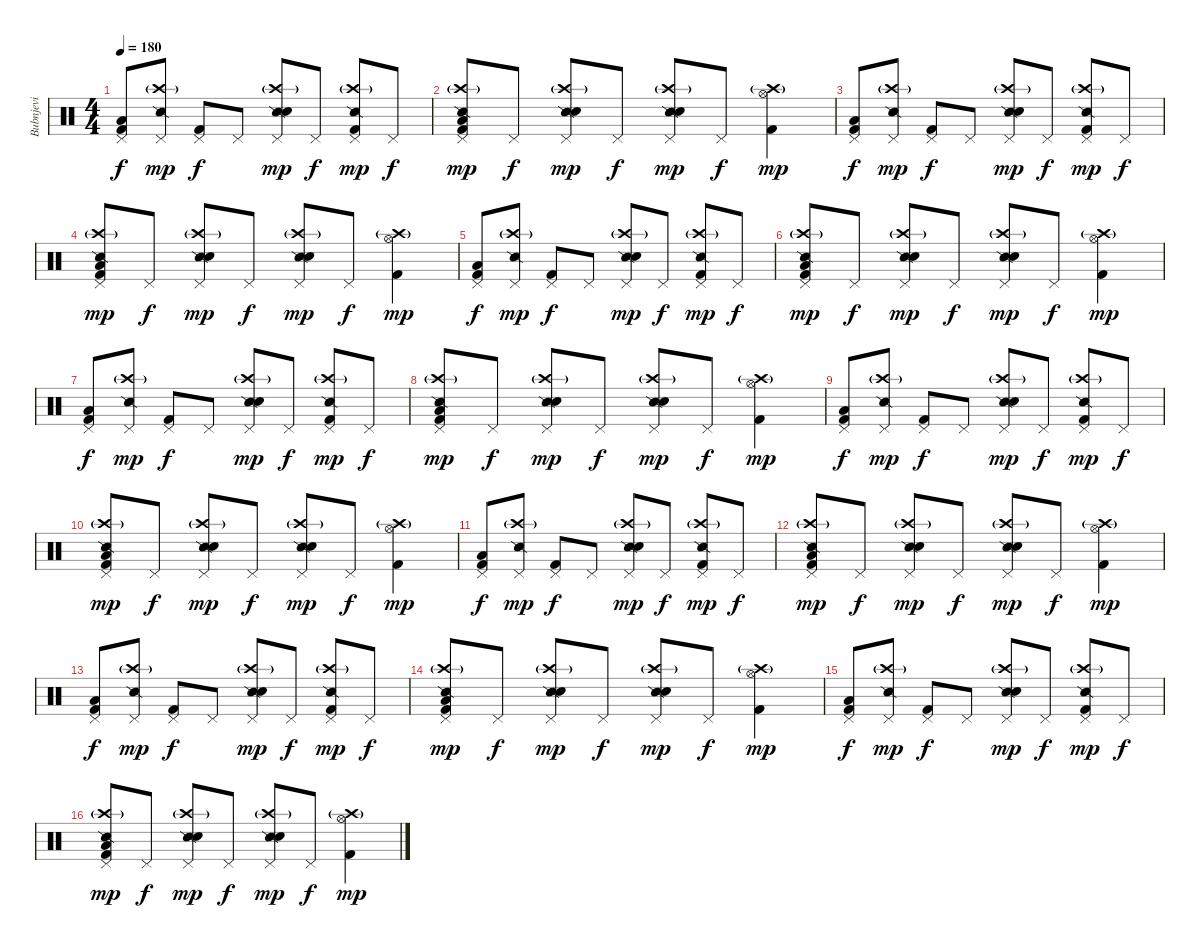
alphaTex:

\track ("Bubnjevi" "Bubnjevi") {instrument percussion}
\staff {score}
\articulation defaults
\ts (4 4)
\tempo 180
\clef neutral
\ks c
("Pedal Hi-Hat (hit)" "Low Tom (hit)" "Kick (hit) 2").8{dy f} ("Crash high (hit)"{g} "Snare (side stick) 2" "Pedal Hi-Hat (hit)").8{dy mp} ("Pedal Hi-Hat (hit)" "Kick (hit) 2").8{dy f} "Pedal Hi-Hat (hit)".8 ("Crash high (hit)"{g} "Snare (side stick) 2" "Pedal Hi-Hat (hit)" "Electric Snare (hit)").8{dy mp} "Pedal Hi-Hat (hit)".8{dy f} ("Crash high (hit)"{g} "Snare (side stick) 2" "Pedal Hi-Hat (hit)" "Kick (hit) 2").8{dy mp} "Pedal Hi-Hat (hit)".8{dy f} |
("Crash high (hit)"{g} "Snare (side stick) 2" "Pedal Hi-Hat (hit)" "Low Tom (hit)" "Kick (hit) 2").8{dy mp} "Pedal Hi-Hat (hit)".8{dy f} ("Crash high (hit)"{g} "Snare (side stick) 2" "Pedal Hi-Hat (hit)" "Hand Clap (hit)").8{dy mp} "Pedal Hi-Hat (hit)".8{dy f} ("Crash high (hit)"{g} "Snare (side stick) 2" "Pedal Hi-Hat (hit)" "Electric Snare (hit)").8{dy mp} "Pedal Hi-Hat (hit)".8{dy f} ("Crash high (hit)"{g} "Hi-Hat (open)" "Kick (hit) 2").4{dy mp} |
("Pedal Hi-Hat (hit)" "Low Tom (hit)" "Kick (hit) 2").8{dy f} ("Crash high (hit)"{g} "Snare (side stick) 2" "Pedal Hi-Hat (hit)").8{dy mp} ("Pedal Hi-Hat (hit)" "Kick (hit) 2").8{dy f} "Pedal Hi-Hat (hit)".8 ("Crash high (hit)"{g} "Snare (side stick) 2" "Pedal Hi-Hat (hit)" "Electric Snare (hit)").8{dy mp} "Pedal Hi-Hat (hit)".8{dy f} ("Crash high (hit)"{g} "Snare (side stick) 2" "Pedal Hi-Hat (hit)" "Kick (hit) 2").8{dy mp} "Pedal Hi-Hat (hit)".8{dy f} |
("Crash high (hit)"{g} "Snare (side stick) 2" "Pedal Hi-Hat (hit)" "Low Tom (hit)" "Kick (hit) 2").8{dy mp} "Pedal Hi-Hat (hit)".8{dy f} ("Crash high (hit)"{g} "Snare (side stick) 2" "Pedal Hi-Hat (hit)" "Hand Clap (hit)").8{dy mp} "Pedal Hi-Hat (hit)".8{dy f} ("Crash high (hit)"{g} "Snare (side stick) 2" "Pedal Hi-Hat (hit)" "Electric Snare (hit)").8{dy mp} "Pedal Hi-Hat (hit)".8{dy f} ("Crash high (hit)"{g} "Hi-Hat (open)" "Kick (hit) 2").4{dy mp} |
("Pedal Hi-Hat (hit)" "Low Tom (hit)" "Kick (hit) 2").8{dy f} ("Crash high (hit)"{g} "Snare (side stick) 2" "Pedal Hi-Hat (hit)").8{dy mp} ("Pedal Hi-Hat (hit)" "Kick (hit) 2").8{dy f} "Pedal Hi-Hat (hit)".8 ("Crash high (hit)"{g} "Snare (side stick) 2" "Pedal Hi-Hat (hit)" "Electric Snare (hit)").8{dy mp} "Pedal Hi-Hat (hit)".8{dy f} ("Crash high (hit)"{g} "Snare (side stick) 2" "Pedal Hi-Hat (hit)" "Kick (hit) 2").8{dy mp} "Pedal Hi-Hat (hit)".8{dy f} |
("Crash high (hit)"{g} "Snare (side stick) 2" "Pedal Hi-Hat (hit)" "Low Tom (hit)" "Kick (hit) 2").8{dy mp} "Pedal Hi-Hat (hit)".8{dy f} ("Crash high (hit)"{g} "Snare (side stick) 2" "Pedal Hi-Hat (hit)" "Hand Clap (hit)").8{dy mp} "Pedal Hi-Hat (hit)".8{dy f} ("Crash high (hit)"{g} "Snare (side stick) 2" "Pedal Hi-Hat (hit)" "Electric Snare (hit)").8{dy mp} "Pedal Hi-Hat (hit)".8{dy f} ("Crash high (hit)"{g} "Hi-Hat (open)" "Kick (hit) 2").4{dy mp} |
("Pedal Hi-Hat (hit)" "Low Tom (hit)" "Kick (hit) 2").8{dy f} ("Crash high (hit)"{g} "Snare (side stick) 2" "Pedal Hi-Hat (hit)").8{dy mp} ("Pedal Hi-Hat (hit)" "Kick (hit) 2").8{dy f} "Pedal Hi-Hat (hit)".8 ("Crash high (hit)"{g} "Snare (side stick) 2" "Pedal Hi-Hat (hit)" "Electric Snare (hit)").8{dy mp} "Pedal Hi-Hat (hit)".8{dy f} ("Crash high (hit)"{g} "Snare (side stick) 2" "Pedal Hi-Hat (hit)" "Kick (hit) 2").8{dy mp} "Pedal Hi-Hat (hit)".8{dy f} |
("Crash high (hit)"{g} "Snare (side stick) 2" "Pedal Hi-Hat (hit)" "Low Tom (hit)" "Kick (hit) 2").8{dy mp} "Pedal Hi-Hat (hit)".8{dy f} ("Crash high (hit)"{g} "Snare (side stick) 2" "Pedal Hi-Hat (hit)" "Hand Clap (hit)").8{dy mp} "Pedal Hi-Hat (hit)".8{dy f} ("Crash high (hit)"{g} "Snare (side stick) 2" "Pedal Hi-Hat (hit)" "Electric Snare (hit)").8{dy mp} "Pedal Hi-Hat (hit)".8{dy f} ("Crash high (hit)"{g} "Hi-Hat (open)" "Kick (hit) 2").4{dy mp} |
("Pedal Hi-Hat (hit)" "Low Tom (hit)" "Kick (hit) 2").8{dy f} ("Crash high (hit)"{g} "Snare (side stick) 2" "Pedal Hi-Hat (hit)").8{dy mp} ("Pedal Hi-Hat (hit)" "Kick (hit) 2").8{dy f} "Pedal Hi-Hat (hit)".8 ("Crash high (hit)"{g} "Snare (side stick) 2" "Pedal Hi-Hat (hit)" "Electric Snare (hit)").8{dy mp} "Pedal Hi-Hat (hit)".8{dy f} ("Crash high (hit)"{g} "Snare (side stick) 2" "Pedal Hi-Hat (hit)" "Kick (hit) 2").8{dy mp} "Pedal Hi-Hat (hit)".8{dy f} |
("Crash high (hit)"{g} "Snare (side stick) 2" "Pedal Hi-Hat (hit)" "Low Tom (hit)" "Kick (hit) 2").8{dy mp} "Pedal Hi-Hat (hit)".8{dy f} ("Crash high (hit)"{g} "Snare (side stick) 2" "Pedal Hi-Hat (hit)" "Hand Clap (hit)").8{dy mp} "Pedal Hi-Hat (hit)".8{dy f} ("Crash high (hit)"{g} "Snare (side stick) 2" "Pedal Hi-Hat (hit)" "Electric Snare (hit)").8{dy mp} "Pedal Hi-Hat (hit)".8{dy f} ("Crash high (hit)"{g} "Hi-Hat (open)" "Kick (hit) 2").4{dy mp} |
("Pedal Hi-Hat (hit)" "Low Tom (hit)" "Kick (hit) 2").8{dy f} ("Crash high (hit)"{g} "Snare (side stick) 2" "Pedal Hi-Hat (hit)").8{dy mp} ("Pedal Hi-Hat (hit)" "Kick (hit) 2").8{dy f} "Pedal Hi-Hat (hit)".8 ("Crash high (hit)"{g} "Snare (side stick) 2" "Pedal Hi-Hat (hit)" "Electric Snare (hit)").8{dy mp} "Pedal Hi-Hat (hit)".8{dy f} ("Crash high (hit)"{g} "Snare (side stick) 2" "Pedal Hi-Hat (hit)" "Kick (hit) 2").8{dy mp} "Pedal Hi-Hat (hit)".8{dy f} |
("Crash high (hit)"{g} "Snare (side stick) 2" "Pedal Hi-Hat (hit)" "Low Tom (hit)" "Kick (hit) 2").8{dy mp} "Pedal Hi-Hat (hit)".8{dy f} ("Crash high (hit)"{g} "Snare (side stick) 2" "Pedal Hi-Hat (hit)" "Hand Clap (hit)").8{dy mp} "Pedal Hi-Hat (hit)".8{dy f} ("Crash high (hit)"{g} "Snare (side stick) 2" "Pedal Hi-Hat (hit)" "Electric Snare (hit)").8{dy mp} "Pedal Hi-Hat (hit)".8{dy f} ("Crash high (hit)"{g} "Hi-Hat (open)" "Kick (hit) 2").4{dy mp} |
("Pedal Hi-Hat (hit)" "Low Tom (hit)" "Kick (hit) 2").8{dy f} ("Crash high (hit)"{g} "Snare (side stick) 2" "Pedal Hi-Hat (hit)").8{dy mp} ("Pedal Hi-Hat (hit)" "Kick (hit) 2").8{dy f} "Pedal Hi-Hat (hit)".8 ("Crash high (hit)"{g} "Snare (side stick) 2" "Pedal Hi-Hat (hit)" "Electric Snare (hit)").8{dy mp} "Pedal Hi-Hat (hit)".8{dy f} ("Crash high (hit)"{g} "Snare (side stick) 2" "Pedal Hi-Hat (hit)" "Kick (hit) 2").8{dy mp} "Pedal Hi-Hat (hit)".8{dy f} |
("Crash high (hit)"{g} "Snare (side stick) 2" "Pedal Hi-Hat (hit)" "Low Tom (hit)" "Kick (hit) 2").8{dy mp} "Pedal Hi-Hat (hit)".8{dy f} ("Crash high (hit)"{g} "Snare (side stick) 2" "Pedal Hi-Hat (hit)" "Hand Clap (hit)").8{dy mp} "Pedal Hi-Hat (hit)".8{dy f} ("Crash high (hit)"{g} "Snare (side stick) 2" "Pedal Hi-Hat (hit)" "Electric Snare (hit)").8{dy mp} "Pedal Hi-Hat (hit)".8{dy f} ("Crash high (hit)"{g} "Hi-Hat (open)" "Kick (hit) 2").4{dy mp} |
("Pedal Hi-Hat (hit)" "Low Tom (hit)" "Kick (hit) 2").8{dy f} ("Crash high (hit)"{g} "Snare (side stick) 2" "Pedal Hi-Hat (hit)").8{dy mp} ("Pedal Hi-Hat (hit)" "Kick (hit) 2").8{dy f} "Pedal Hi-Hat (hit)".8 ("Crash high (hit)"{g} "Snare (side stick) 2" "Pedal Hi-Hat (hit)" "Electric Snare (hit)").8{dy mp} "Pedal Hi-Hat (hit)".8{dy f} ("Crash high (hit)"{g} "Snare (side stick) 2" "Pedal Hi-Hat (hit)" "Kick (hit) 2").8{dy mp} "Pedal Hi-Hat (hit)".8{dy f} |
("Crash high (hit)"{g} "Snare (side stick) 2" "Pedal Hi-Hat (hit)" "Low Tom (hit)" "Kick (hit) 2").8{dy mp} "Pedal Hi-Hat (hit)".8{dy f} ("Crash high (hit)"{g} "Snare (side stick) 2" "Pedal Hi-Hat (hit)" "Hand Clap (hit)").8{dy mp} "Pedal Hi-Hat (hit)".8{dy f} ("Crash high (hit)"{g} "Snare (side stick) 2" "Pedal Hi-Hat (hit)" "Electric Snare (hit)").8{dy mp} "Pedal Hi-Hat (hit)".8{dy f} ("Crash high (hit)"{g} "Hi-Hat (open)" "Kick (hit) 2").4{dy mp}
